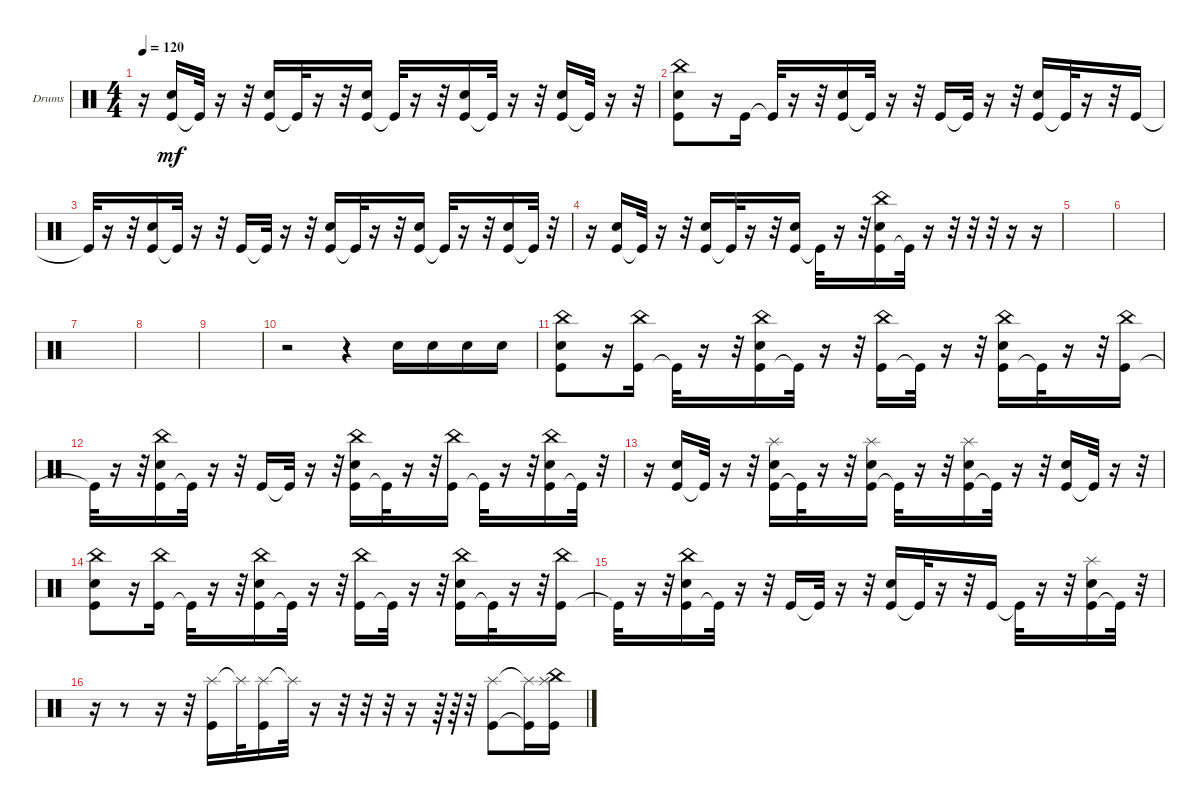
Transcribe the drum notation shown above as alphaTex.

\defaultSystemsLayout 4
\bracketExtendMode groupsimilarinstruments
\firstSystemTrackNameOrientation horizontal
\otherSystemsTrackNameOrientation horizontal
\track ("Drumkit" "Drums") {instrument percussion}
\staff {score}
\articulation defaults
\ts (4 4)
\tempo 120
\clef neutral
\ks c
r.16{dy mf} ("Kick (hit)" "Snare (hit) 2").16 "Kick (hit)"{t}.32 r.16 r.32 ("Kick (hit)" "Snare (hit) 2").16 "Kick (hit)"{t}.32 r.16 r.32 ("Kick (hit)" "Snare (hit) 2").16 "Kick (hit)"{t}.32 r.16 r.32 ("Kick (hit)" "Snare (hit) 2").16 "Kick (hit)"{t}.32 r.16 r.32 ("Kick (hit)" "Snare (hit) 2").16 "Kick (hit)"{t}.32 r.16 r.32 |
("Kick (hit)" "Snare (hit) 2" "China (hit)").8 r.16 "Kick (hit)".16 "Kick (hit)"{t}.32 r.16 r.32 ("Kick (hit)" "Snare (hit) 2").16 "Kick (hit)"{t}.32 r.16 r.32 "Kick (hit)".16 "Kick (hit)"{t}.32 r.16 r.32 ("Kick (hit)" "Snare (hit) 2").16 "Kick (hit)"{t}.32 r.16 r.32 "Kick (hit)".16 |
"Kick (hit)"{t}.32 r.16 r.32 ("Kick (hit)" "Snare (hit) 2").16 "Kick (hit)"{t}.32 r.16 r.32 "Kick (hit)".16 "Kick (hit)"{t}.32 r.16 r.32 ("Kick (hit)" "Snare (hit) 2").16 "Kick (hit)"{t}.32 r.16 r.32 ("Kick (hit)" "Snare (hit) 2").16 "Kick (hit)"{t}.32 r.16 r.32 ("Kick (hit)" "Snare (hit) 2").16 "Kick (hit)"{t}.32 r.32 |
r.16 ("Kick (hit)" "Snare (hit) 2").16 "Kick (hit)"{t}.32 r.16 r.32 ("Kick (hit)" "Snare (hit) 2").16 "Kick (hit)"{t}.32 r.16 r.32 ("Kick (hit)" "Snare (hit) 2").16 "Kick (hit)"{t}.32 r.16 r.32 ("Kick (hit)" "Snare (hit) 2" "China (hit)").16 "Kick (hit)"{t}.32 r.16 r.32 r.32 r.32 r.16 r.16 |
|
|
|
|
|
r.2 r.4 "Snare (hit) 2".16 "Snare (hit) 2".16 "Snare (hit) 2".16 "Snare (hit) 2".16 |
("Kick (hit)" "Snare (hit) 2" "China (hit)").8 r.16 ("Kick (hit)" "China (hit)").16 "Kick (hit)"{t}.32 r.16 r.32 ("Kick (hit)" "Snare (hit) 2" "China (hit)").16 "Kick (hit)"{t}.32 r.16 r.32 ("Kick (hit)" "China (hit)").16 "Kick (hit)"{t}.32 r.16 r.32 ("Kick (hit)" "Snare (hit) 2" "China (hit)").16 "Kick (hit)"{t}.32 r.16 r.32 ("Kick (hit)" "China (hit)").16 |
"Kick (hit)"{t}.32 r.16 r.32 ("Kick (hit)" "Snare (hit) 2" "China (hit)").16 "Kick (hit)"{t}.32 r.16 r.32 "Kick (hit)".16 "Kick (hit)"{t}.32 r.16 r.32 ("Kick (hit)" "Snare (hit) 2" "China (hit)").16 "Kick (hit)"{t}.32 r.16 r.32 ("Kick (hit)" "China (hit)").16 "Kick (hit)"{t}.32 r.16 r.32 ("Kick (hit)" "Snare (hit) 2" "China (hit)").16 "Kick (hit)"{t}.32 r.32 |
r.16 ("Kick (hit)" "Snare (hit) 2").16 "Kick (hit)"{t}.32 r.16 r.32 ("Kick (hit)" "Snare (hit) 2" "Splash (hit)").16 "Kick (hit)"{t}.32 r.16 r.32 ("Kick (hit)" "Snare (hit) 2" "Splash (hit)").16 "Kick (hit)"{t}.32 r.16 r.32 ("Kick (hit)" "Snare (hit) 2" "Splash (hit)").16 "Kick (hit)"{t}.32 r.16 r.32 ("Kick (hit)" "Snare (hit) 2").16 "Kick (hit)"{t}.32 r.16 r.32 |
("Kick (hit)" "Snare (hit) 2" "China (hit)").8 r.16 ("Kick (hit)" "China (hit)").16 "Kick (hit)"{t}.32 r.16 r.32 ("Kick (hit)" "Snare (hit) 2" "China (hit)").16 "Kick (hit)"{t}.32 r.16 r.32 ("Kick (hit)" "China (hit)").16 "Kick (hit)"{t}.32 r.16 r.32 ("Kick (hit)" "Snare (hit) 2" "China (hit)").16 "Kick (hit)"{t}.32 r.16 r.32 ("Kick (hit)" "China (hit)").16 |
"Kick (hit)"{t}.32 r.16 r.32 ("Kick (hit)" "Snare (hit) 2" "China (hit)").16 "Kick (hit)"{t}.32 r.16 r.32 "Kick (hit)".16 "Kick (hit)"{t}.32 r.16 r.32 ("Kick (hit)" "Snare (hit) 2").16 "Kick (hit)"{t}.32 r.16 r.32 "Kick (hit)".16 "Kick (hit)"{t}.32 r.16 r.32 ("Kick (hit)" "Snare (hit) 2" "Splash (hit)").16 "Kick (hit)"{t}.32 r.32 |
r.16 r.8 r.16 r.32 ("Splash (hit)" "Kick (hit)").16 "Splash (hit)"{t}.32 ("Splash (hit)" "Kick (hit)").16 "Splash (hit)"{t}.32 r.16 r.32 r.32 r.32 r.16 r.64 r.64 r.32 ("Splash (hit)" "Kick (hit)").8 ("Splash (hit)"{t} "Kick (hit)"{t}).16 ("Splash (hit)" "Kick (hit)" "China (hit)").16
